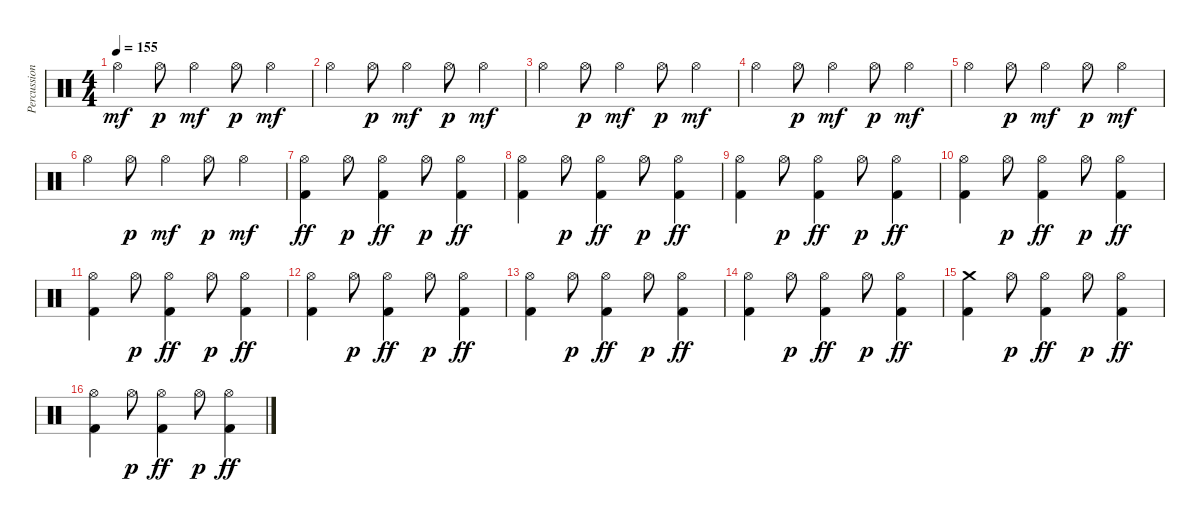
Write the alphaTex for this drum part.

\track ("Percussions" "Percussion") {instrument percussion}
\staff {score}
\articulation defaults
\ts (4 4)
\tempo 155
\clef neutral
\ks c "Hi-Hat (open)".4{dy mf} "Hi-Hat (open)".8{dy p} "Hi-Hat (open)".4{dy mf} "Hi-Hat (open)".8{dy p} "Hi-Hat (open)".4{dy mf}
|
"Hi-Hat (open)".4 "Hi-Hat (open)".8{dy p} "Hi-Hat (open)".4{dy mf} "Hi-Hat (open)".8{dy p} "Hi-Hat (open)".4{dy mf} |
"Hi-Hat (open)".4 "Hi-Hat (open)".8{dy p} "Hi-Hat (open)".4{dy mf} "Hi-Hat (open)".8{dy p} "Hi-Hat (open)".4{dy mf} |
"Hi-Hat (open)".4 "Hi-Hat (open)".8{dy p} "Hi-Hat (open)".4{dy mf} "Hi-Hat (open)".8{dy p} "Hi-Hat (open)".4{dy mf} |
"Hi-Hat (open)".4 "Hi-Hat (open)".8{dy p} "Hi-Hat (open)".4{dy mf} "Hi-Hat (open)".8{dy p} "Hi-Hat (open)".4{dy mf} |
"Hi-Hat (open)".4 "Hi-Hat (open)".8{dy p} "Hi-Hat (open)".4{dy mf} "Hi-Hat (open)".8{dy p} "Hi-Hat (open)".4{dy mf} |
("Hi-Hat (open)" "Kick (hit) 2").4{dy ff} "Hi-Hat (open)".8{dy p} ("Hi-Hat (open)" "Kick (hit) 2").4{dy ff} "Hi-Hat (open)".8{dy p} ("Hi-Hat (open)" "Kick (hit) 2").4{dy ff} |
("Hi-Hat (open)" "Kick (hit) 2").4 "Hi-Hat (open)".8{dy p} ("Hi-Hat (open)" "Kick (hit) 2").4{dy ff} "Hi-Hat (open)".8{dy p} ("Hi-Hat (open)" "Kick (hit) 2").4{dy ff} |
("Hi-Hat (open)" "Kick (hit) 2").4 "Hi-Hat (open)".8{dy p} ("Hi-Hat (open)" "Kick (hit) 2").4{dy ff} "Hi-Hat (open)".8{dy p} ("Hi-Hat (open)" "Kick (hit) 2").4{dy ff} |
("Hi-Hat (open)" "Kick (hit) 2").4 "Hi-Hat (open)".8{dy p} ("Hi-Hat (open)" "Kick (hit) 2").4{dy ff} "Hi-Hat (open)".8{dy p} ("Hi-Hat (open)" "Kick (hit) 2").4{dy ff} |
("Hi-Hat (open)" "Kick (hit) 2").4 "Hi-Hat (open)".8{dy p} ("Hi-Hat (open)" "Kick (hit) 2").4{dy ff} "Hi-Hat (open)".8{dy p} ("Hi-Hat (open)" "Kick (hit) 2").4{dy ff} |
("Hi-Hat (open)" "Kick (hit) 2").4 "Hi-Hat (open)".8{dy p} ("Hi-Hat (open)" "Kick (hit) 2").4{dy ff} "Hi-Hat (open)".8{dy p} ("Hi-Hat (open)" "Kick (hit) 2").4{dy ff} |
("Hi-Hat (open)" "Kick (hit) 2").4 "Hi-Hat (open)".8{dy p} ("Hi-Hat (open)" "Kick (hit) 2").4{dy ff} "Hi-Hat (open)".8{dy p} ("Hi-Hat (open)" "Kick (hit) 2").4{dy ff} |
("Hi-Hat (open)" "Kick (hit) 2").4 "Hi-Hat (open)".8{dy p} ("Hi-Hat (open)" "Kick (hit) 2").4{dy ff} "Hi-Hat (open)".8{dy p} ("Hi-Hat (open)" "Kick (hit) 2").4{dy ff} |
("Crash medium (hit)" "Kick (hit) 2").4 "Hi-Hat (open)".8{dy p} ("Hi-Hat (open)" "Kick (hit) 2").4{dy ff} "Hi-Hat (open)".8{dy p} ("Hi-Hat (open)" "Kick (hit) 2").4{dy ff} |
("Hi-Hat (open)" "Kick (hit) 2").4 "Hi-Hat (open)".8{dy p} ("Hi-Hat (open)" "Kick (hit) 2").4{dy ff} "Hi-Hat (open)".8{dy p} ("Hi-Hat (open)" "Kick (hit) 2").4{dy ff}
